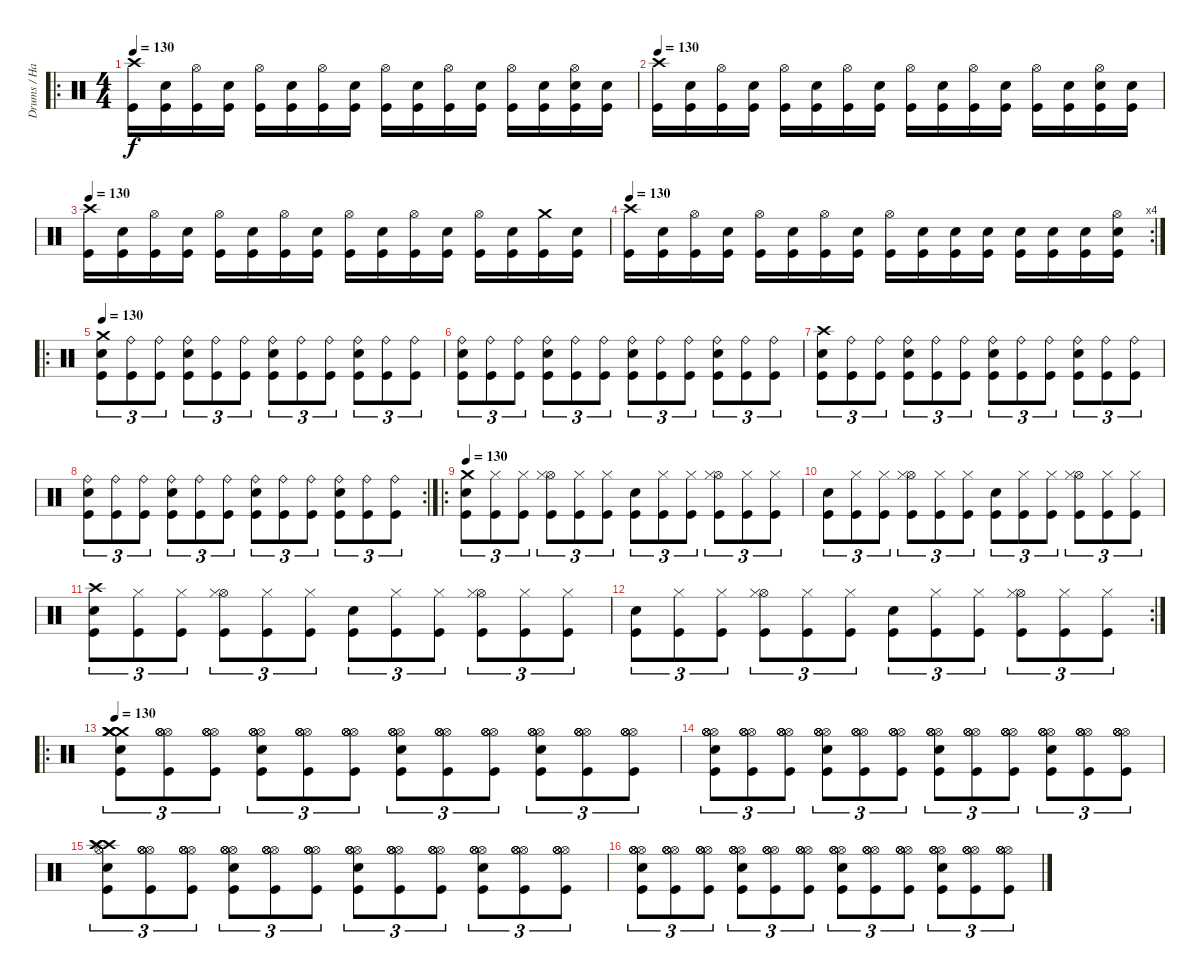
\track ("Drums / Hammer of God" "Drums / Ha") {instrument percussion}
\staff {score}
\articulation defaults
\ro
\ts (4 4)
\tempo 130
\clef neutral
\ks c
("Crash high (hit)" "Kick (hit)").16{dy f} ("Snare (hit) 2" "Kick (hit)").16 ("Hi-Hat (open)" "Kick (hit)").16 ("Snare (hit) 2" "Kick (hit)").16 ("Hi-Hat (open)" "Kick (hit)").16 ("Snare (hit) 2" "Kick (hit)").16 ("Hi-Hat (open)" "Kick (hit)").16 ("Snare (hit) 2" "Kick (hit)").16 ("Hi-Hat (open)" "Kick (hit)").16 ("Snare (hit) 2" "Kick (hit)").16 ("Hi-Hat (open)" "Kick (hit)").16 ("Snare (hit) 2" "Kick (hit)").16 ("Hi-Hat (open)" "Kick (hit)").16 ("Snare (hit) 2" "Kick (hit)").16 ("Hi-Hat (open)" "Snare (hit) 2" "Kick (hit)").16 ("Snare (hit) 2" "Kick (hit)").16 |
\tempo 130
("Crash high (hit)" "Kick (hit)").16 ("Snare (hit) 2" "Kick (hit)").16 ("Hi-Hat (open)" "Kick (hit)").16 ("Snare (hit) 2" "Kick (hit)").16 ("Hi-Hat (open)" "Kick (hit)").16 ("Snare (hit) 2" "Kick (hit)").16 ("Hi-Hat (open)" "Kick (hit)").16 ("Snare (hit) 2" "Kick (hit)").16 ("Hi-Hat (open)" "Kick (hit)").16 ("Snare (hit) 2" "Kick (hit)").16 ("Hi-Hat (open)" "Kick (hit)").16 ("Snare (hit) 2" "Kick (hit)").16 ("Hi-Hat (open)" "Kick (hit)").16 ("Snare (hit) 2" "Kick (hit)").16 ("Hi-Hat (open)" "Snare (hit) 2" "Kick (hit)").16 ("Snare (hit) 2" "Kick (hit)").16 |
\tempo 130
("Crash high (hit)" "Kick (hit)").16 ("Snare (hit) 2" "Kick (hit)").16 ("Hi-Hat (open)" "Kick (hit)").16 ("Snare (hit) 2" "Kick (hit)").16 ("Hi-Hat (open)" "Kick (hit)").16 ("Snare (hit) 2" "Kick (hit)").16 ("Hi-Hat (open)" "Kick (hit)").16 ("Snare (hit) 2" "Kick (hit)").16 ("Hi-Hat (open)" "Kick (hit)").16 ("Snare (hit) 2" "Kick (hit)").16 ("Hi-Hat (open)" "Kick (hit)").16 ("Snare (hit) 2" "Kick (hit)").16 ("Hi-Hat (open)" "Kick (hit)").16 ("Snare (hit) 2" "Kick (hit)").16 ("Crash medium (hit)" "Kick (hit)").16 ("Snare (hit) 2" "Kick (hit)").16 |
\rc 4
\tempo 130
("Crash high (hit)" "Kick (hit)").16 ("Snare (hit) 2" "Kick (hit)").16 ("Hi-Hat (open)" "Kick (hit)").16 ("Snare (hit) 2" "Kick (hit)").16 ("Hi-Hat (open)" "Kick (hit)").16 ("Snare (hit) 2" "Kick (hit)").16 ("Hi-Hat (open)" "Kick (hit)").16 ("Snare (hit) 2" "Kick (hit)").16 ("Hi-Hat (open)" "Kick (hit)").16 ("Snare (hit) 2" "Kick (hit)").16 ("Snare (hit) 2" "Kick (hit)").16 ("Snare (hit) 2" "Kick (hit)").16 ("Snare (hit) 2" "Kick (hit)").16 ("Snare (hit) 2" "Kick (hit)").16 ("Snare (hit) 2" "Kick (hit)").16 ("Hi-Hat (open)" "Snare (hit) 2" "Kick (hit)").16 |
\ro
\tempo 130
("Crash medium (hit)" "Snare (hit) 2" "Kick (hit)").8{tu (3 2)} ("Ride (bell)" "Kick (hit)").8{tu (3 2)} ("Ride (bell)" "Kick (hit)").8{tu (3 2)} ("Snare (hit) 2" "Ride (bell)" "Kick (hit)").8{tu (3 2)} ("Ride (bell)" "Kick (hit)").8{tu (3 2)} ("Ride (bell)" "Kick (hit)").8{tu (3 2)} ("Snare (hit) 2" "Ride (bell)" "Kick (hit)").8{tu (3 2)} ("Ride (bell)" "Kick (hit)").8{tu (3 2)} ("Ride (bell)" "Kick (hit)").8{tu (3 2)} ("Snare (hit) 2" "Ride (bell)" "Kick (hit)").8{tu (3 2)} ("Ride (bell)" "Kick (hit)").8{tu (3 2)} ("Ride (bell)" "Kick (hit)").8{tu (3 2)} |
("Snare (hit) 2" "Ride (bell)" "Kick (hit)").8{tu (3 2)} ("Ride (bell)" "Kick (hit)").8{tu (3 2)} ("Ride (bell)" "Kick (hit)").8{tu (3 2)} ("Snare (hit) 2" "Ride (bell)" "Kick (hit)").8{tu (3 2)} ("Ride (bell)" "Kick (hit)").8{tu (3 2)} ("Ride (bell)" "Kick (hit)").8{tu (3 2)} ("Snare (hit) 2" "Ride (bell)" "Kick (hit)").8{tu (3 2)} ("Ride (bell)" "Kick (hit)").8{tu (3 2)} ("Ride (bell)" "Kick (hit)").8{tu (3 2)} ("Snare (hit) 2" "Ride (bell)" "Kick (hit)").8{tu (3 2)} ("Ride (bell)" "Kick (hit)").8{tu (3 2)} ("Ride (bell)" "Kick (hit)").8{tu (3 2)} |
("Crash high (hit)" "Snare (hit) 2" "Kick (hit)").8{tu (3 2)} ("Ride (bell)" "Kick (hit)").8{tu (3 2)} ("Ride (bell)" "Kick (hit)").8{tu (3 2)} ("Snare (hit) 2" "Ride (bell)" "Kick (hit)").8{tu (3 2)} ("Ride (bell)" "Kick (hit)").8{tu (3 2)} ("Ride (bell)" "Kick (hit)").8{tu (3 2)} ("Snare (hit) 2" "Ride (bell)" "Kick (hit)").8{tu (3 2)} ("Ride (bell)" "Kick (hit)").8{tu (3 2)} ("Ride (bell)" "Kick (hit)").8{tu (3 2)} ("Snare (hit) 2" "Ride (bell)" "Kick (hit)").8{tu (3 2)} ("Ride (bell)" "Kick (hit)").8{tu (3 2)} ("Ride (bell)" "Kick (hit)").8{tu (3 2)} |
\rc 2
("Snare (hit) 2" "Ride (bell)" "Kick (hit)").8{tu (3 2)} ("Ride (bell)" "Kick (hit)").8{tu (3 2)} ("Ride (bell)" "Kick (hit)").8{tu (3 2)} ("Snare (hit) 2" "Ride (bell)" "Kick (hit)").8{tu (3 2)} ("Ride (bell)" "Kick (hit)").8{tu (3 2)} ("Ride (bell)" "Kick (hit)").8{tu (3 2)} ("Snare (hit) 2" "Ride (bell)" "Kick (hit)").8{tu (3 2)} ("Ride (bell)" "Kick (hit)").8{tu (3 2)} ("Ride (bell)" "Kick (hit)").8{tu (3 2)} ("Snare (hit) 2" "Ride (bell)" "Kick (hit)").8{tu (3 2)} ("Ride (bell)" "Kick (hit)").8{tu (3 2)} ("Ride (bell)" "Kick (hit)").8{tu (3 2)} |
\ro
\tempo 130
("Crash medium (hit)" "Snare (hit) 2" "Kick (hit)").8{tu (3 2)} ("Hi-Hat (closed)" "Kick (hit)").8{tu (3 2)} ("Hi-Hat (closed)" "Kick (hit)").8{tu (3 2)} ("Hi-Hat (open)" "Hi-Hat (closed)" "Kick (hit)").8{tu (3 2)} ("Hi-Hat (closed)" "Kick (hit)").8{tu (3 2)} ("Hi-Hat (closed)" "Kick (hit)").8{tu (3 2)} ("Snare (hit) 2" "Kick (hit)").8{tu (3 2)} ("Hi-Hat (closed)" "Kick (hit)").8{tu (3 2)} ("Hi-Hat (closed)" "Kick (hit)").8{tu (3 2)} ("Hi-Hat (open)" "Hi-Hat (closed)" "Kick (hit)").8{tu (3 2)} ("Hi-Hat (closed)" "Kick (hit)").8{tu (3 2)} ("Hi-Hat (closed)" "Kick (hit)").8{tu (3 2)} |
("Snare (hit) 2" "Kick (hit)").8{tu (3 2)} ("Hi-Hat (closed)" "Kick (hit)").8{tu (3 2)} ("Hi-Hat (closed)" "Kick (hit)").8{tu (3 2)} ("Hi-Hat (open)" "Hi-Hat (closed)" "Kick (hit)").8{tu (3 2)} ("Hi-Hat (closed)" "Kick (hit)").8{tu (3 2)} ("Hi-Hat (closed)" "Kick (hit)").8{tu (3 2)} ("Snare (hit) 2" "Kick (hit)").8{tu (3 2)} ("Hi-Hat (closed)" "Kick (hit)").8{tu (3 2)} ("Hi-Hat (closed)" "Kick (hit)").8{tu (3 2)} ("Hi-Hat (open)" "Hi-Hat (closed)" "Kick (hit)").8{tu (3 2)} ("Hi-Hat (closed)" "Kick (hit)").8{tu (3 2)} ("Hi-Hat (closed)" "Kick (hit)").8{tu (3 2)} |
("Crash high (hit)" "Snare (hit) 2" "Kick (hit)").8{tu (3 2)} ("Hi-Hat (closed)" "Kick (hit)").8{tu (3 2)} ("Hi-Hat (closed)" "Kick (hit)").8{tu (3 2)} ("Hi-Hat (open)" "Hi-Hat (closed)" "Kick (hit)").8{tu (3 2)} ("Hi-Hat (closed)" "Kick (hit)").8{tu (3 2)} ("Hi-Hat (closed)" "Kick (hit)").8{tu (3 2)} ("Snare (hit) 2" "Kick (hit)").8{tu (3 2)} ("Hi-Hat (closed)" "Kick (hit)").8{tu (3 2)} ("Hi-Hat (closed)" "Kick (hit)").8{tu (3 2)} ("Hi-Hat (open)" "Hi-Hat (closed)" "Kick (hit)").8{tu (3 2)} ("Hi-Hat (closed)" "Kick (hit)").8{tu (3 2)} ("Hi-Hat (closed)" "Kick (hit)").8{tu (3 2)} |
\rc 2
("Snare (hit) 2" "Kick (hit)").8{tu (3 2)} ("Hi-Hat (closed)" "Kick (hit)").8{tu (3 2)} ("Hi-Hat (closed)" "Kick (hit)").8{tu (3 2)} ("Hi-Hat (open)" "Hi-Hat (closed)" "Kick (hit)").8{tu (3 2)} ("Hi-Hat (closed)" "Kick (hit)").8{tu (3 2)} ("Hi-Hat (closed)" "Kick (hit)").8{tu (3 2)} ("Snare (hit) 2" "Kick (hit)").8{tu (3 2)} ("Hi-Hat (closed)" "Kick (hit)").8{tu (3 2)} ("Hi-Hat (closed)" "Kick (hit)").8{tu (3 2)} ("Hi-Hat (open)" "Hi-Hat (closed)" "Kick (hit)").8{tu (3 2)} ("Hi-Hat (closed)" "Kick (hit)").8{tu (3 2)} ("Hi-Hat (closed)" "Kick (hit)").8{tu (3 2)} |
\ro
\tempo 130
("Crash medium (hit)" "Crash medium (hit)" "Snare (hit) 2" "Crash medium (hit)" "Crash medium (hit)" "Kick (hit)").8{tu (3 2)} ("Hi-Hat (open)" "Hi-Hat (open)" "Hi-Hat (open)" "Hi-Hat (open)" "Kick (hit)").8{tu (3 2)} ("Hi-Hat (open)" "Hi-Hat (open)" "Hi-Hat (open)" "Hi-Hat (open)" "Kick (hit)").8{tu (3 2)} ("Hi-Hat (open)" "Hi-Hat (open)" "Snare (hit) 2" "Hi-Hat (open)" "Hi-Hat (open)" "Kick (hit)").8{tu (3 2)} ("Hi-Hat (open)" "Hi-Hat (open)" "Hi-Hat (open)" "Hi-Hat (open)" "Kick (hit)").8{tu (3 2)} ("Hi-Hat (open)" "Hi-Hat (open)" "Hi-Hat (open)" "Hi-Hat (open)" "Kick (hit)").8{tu (3 2)} ("Hi-Hat (open)" "Hi-Hat (open)" "Snare (hit) 2" "Hi-Hat (open)" "Hi-Hat (open)" "Kick (hit)").8{tu (3 2)} ("Hi-Hat (open)" "Hi-Hat (open)" "Hi-Hat (open)" "Hi-Hat (open)" "Kick (hit)").8{tu (3 2)} ("Hi-Hat (open)" "Hi-Hat (open)" "Hi-Hat (open)" "Hi-Hat (open)" "Kick (hit)").8{tu (3 2)} ("Hi-Hat (open)" "Hi-Hat (open)" "Snare (hit) 2" "Hi-Hat (open)" "Hi-Hat (open)" "Kick (hit)").8{tu (3 2)} ("Hi-Hat (open)" "Hi-Hat (open)" "Hi-Hat (open)" "Hi-Hat (open)" "Kick (hit)").8{tu (3 2)} ("Hi-Hat (open)" "Hi-Hat (open)" "Hi-Hat (open)" "Hi-Hat (open)" "Kick (hit)").8{tu (3 2)} |
("Hi-Hat (open)" "Hi-Hat (open)" "Snare (hit) 2" "Hi-Hat (open)" "Hi-Hat (open)" "Kick (hit)").8{tu (3 2)} ("Hi-Hat (open)" "Hi-Hat (open)" "Hi-Hat (open)" "Hi-Hat (open)" "Kick (hit)").8{tu (3 2)} ("Hi-Hat (open)" "Hi-Hat (open)" "Hi-Hat (open)" "Hi-Hat (open)" "Kick (hit)").8{tu (3 2)} ("Hi-Hat (open)" "Hi-Hat (open)" "Snare (hit) 2" "Hi-Hat (open)" "Hi-Hat (open)" "Kick (hit)").8{tu (3 2)} ("Hi-Hat (open)" "Hi-Hat (open)" "Hi-Hat (open)" "Hi-Hat (open)" "Kick (hit)").8{tu (3 2)} ("Hi-Hat (open)" "Hi-Hat (open)" "Hi-Hat (open)" "Hi-Hat (open)" "Kick (hit)").8{tu (3 2)} ("Hi-Hat (open)" "Hi-Hat (open)" "Snare (hit) 2" "Hi-Hat (open)" "Hi-Hat (open)" "Kick (hit)").8{tu (3 2)} ("Hi-Hat (open)" "Hi-Hat (open)" "Hi-Hat (open)" "Hi-Hat (open)" "Kick (hit)").8{tu (3 2)} ("Hi-Hat (open)" "Hi-Hat (open)" "Hi-Hat (open)" "Hi-Hat (open)" "Kick (hit)").8{tu (3 2)} ("Hi-Hat (open)" "Hi-Hat (open)" "Snare (hit) 2" "Hi-Hat (open)" "Hi-Hat (open)" "Kick (hit)").8{tu (3 2)} ("Hi-Hat (open)" "Hi-Hat (open)" "Hi-Hat (open)" "Hi-Hat (open)" "Kick (hit)").8{tu (3 2)} ("Hi-Hat (open)" "Hi-Hat (open)" "Hi-Hat (open)" "Hi-Hat (open)" "Kick (hit)").8{tu (3 2)} |
("Crash high (hit)" "Crash high (hit)" "Snare (hit) 2" "Crash high (hit)" "Hi-Hat (open)" "Kick (hit)").8{tu (3 2)} ("Hi-Hat (open)" "Hi-Hat (open)" "Hi-Hat (open)" "Hi-Hat (open)" "Kick (hit)").8{tu (3 2)} ("Hi-Hat (open)" "Hi-Hat (open)" "Hi-Hat (open)" "Hi-Hat (open)" "Kick (hit)").8{tu (3 2)} ("Hi-Hat (open)" "Hi-Hat (open)" "Snare (hit) 2" "Hi-Hat (open)" "Hi-Hat (open)" "Kick (hit)").8{tu (3 2)} ("Hi-Hat (open)" "Hi-Hat (open)" "Hi-Hat (open)" "Hi-Hat (open)" "Kick (hit)").8{tu (3 2)} ("Hi-Hat (open)" "Hi-Hat (open)" "Hi-Hat (open)" "Hi-Hat (open)" "Kick (hit)").8{tu (3 2)} ("Hi-Hat (open)" "Hi-Hat (open)" "Snare (hit) 2" "Hi-Hat (open)" "Hi-Hat (open)" "Kick (hit)").8{tu (3 2)} ("Hi-Hat (open)" "Hi-Hat (open)" "Hi-Hat (open)" "Hi-Hat (open)" "Kick (hit)").8{tu (3 2)} ("Hi-Hat (open)" "Hi-Hat (open)" "Hi-Hat (open)" "Hi-Hat (open)" "Kick (hit)").8{tu (3 2)} ("Hi-Hat (open)" "Hi-Hat (open)" "Snare (hit) 2" "Hi-Hat (open)" "Hi-Hat (open)" "Kick (hit)").8{tu (3 2)} ("Hi-Hat (open)" "Hi-Hat (open)" "Hi-Hat (open)" "Hi-Hat (open)" "Kick (hit)").8{tu (3 2)} ("Hi-Hat (open)" "Hi-Hat (open)" "Hi-Hat (open)" "Hi-Hat (open)" "Kick (hit)").8{tu (3 2)} |
("Hi-Hat (open)" "Hi-Hat (open)" "Snare (hit) 2" "Hi-Hat (open)" "Hi-Hat (open)" "Kick (hit)").8{tu (3 2)} ("Hi-Hat (open)" "Hi-Hat (open)" "Hi-Hat (open)" "Hi-Hat (open)" "Kick (hit)").8{tu (3 2)} ("Hi-Hat (open)" "Hi-Hat (open)" "Hi-Hat (open)" "Hi-Hat (open)" "Kick (hit)").8{tu (3 2)} ("Hi-Hat (open)" "Hi-Hat (open)" "Snare (hit) 2" "Hi-Hat (open)" "Hi-Hat (open)" "Kick (hit)").8{tu (3 2)} ("Hi-Hat (open)" "Hi-Hat (open)" "Hi-Hat (open)" "Hi-Hat (open)" "Kick (hit)").8{tu (3 2)} ("Hi-Hat (open)" "Hi-Hat (open)" "Hi-Hat (open)" "Hi-Hat (open)" "Kick (hit)").8{tu (3 2)} ("Hi-Hat (open)" "Hi-Hat (open)" "Snare (hit) 2" "Hi-Hat (open)" "Hi-Hat (open)" "Kick (hit)").8{tu (3 2)} ("Hi-Hat (open)" "Hi-Hat (open)" "Hi-Hat (open)" "Hi-Hat (open)" "Kick (hit)").8{tu (3 2)} ("Hi-Hat (open)" "Hi-Hat (open)" "Hi-Hat (open)" "Hi-Hat (open)" "Kick (hit)").8{tu (3 2)} ("Hi-Hat (open)" "Hi-Hat (open)" "Snare (hit) 2" "Hi-Hat (open)" "Hi-Hat (open)" "Kick (hit)").8{tu (3 2)} ("Hi-Hat (open)" "Hi-Hat (open)" "Hi-Hat (open)" "Hi-Hat (open)" "Kick (hit)").8{tu (3 2)} ("Hi-Hat (open)" "Hi-Hat (open)" "Hi-Hat (open)" "Hi-Hat (open)" "Kick (hit)").8{tu (3 2)}
